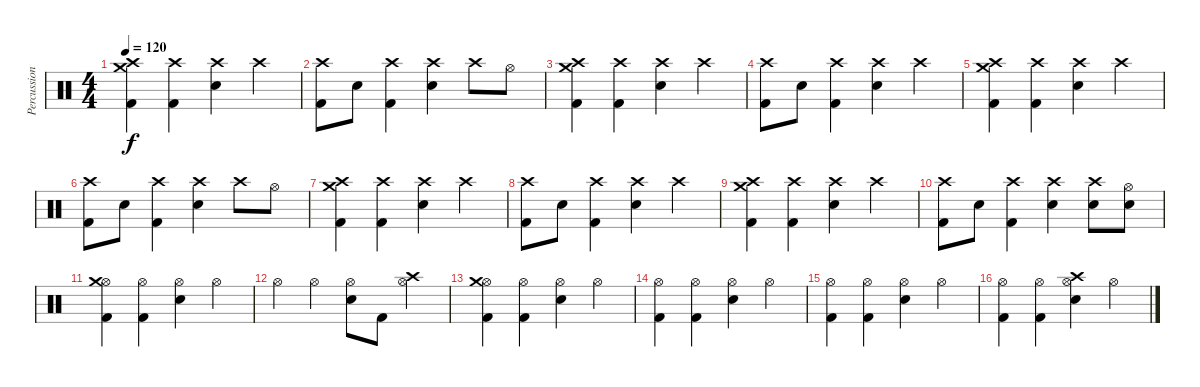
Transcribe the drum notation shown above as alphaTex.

\track ("Percussioni" "Percussion") {instrument percussion}
\staff {score}
\articulation defaults
\ts (4 4)
\tempo 120
\clef neutral
\ks c
("Crash high (hit)" "Kick (hit) 2" "Crash medium (hit)").4{dy f} ("Crash high (hit)" "Kick (hit) 2").4 ("Crash high (hit)" "Snare (hit) 2").4 "Crash high (hit)".4 |
("Crash high (hit)" "Kick (hit) 2").8 "Snare (hit) 2".8 ("Crash high (hit)" "Kick (hit) 2").4 ("Crash high (hit)" "Snare (hit) 2").4 "Crash high (hit)".8 "Hi-Hat (open)".8 |
("Crash high (hit)" "Kick (hit) 2" "Crash medium (hit)").4 ("Crash high (hit)" "Kick (hit) 2").4 ("Crash high (hit)" "Snare (hit) 2").4 "Crash high (hit)".4 |
("Crash high (hit)" "Kick (hit) 2").8 "Snare (hit) 2".8 ("Crash high (hit)" "Kick (hit) 2").4 ("Crash high (hit)" "Snare (hit) 2").4 "Crash high (hit)".4 |
("Crash high (hit)" "Kick (hit) 2" "Crash medium (hit)").4 ("Crash high (hit)" "Kick (hit) 2").4 ("Crash high (hit)" "Snare (hit) 2").4 "Crash high (hit)".4 |
("Crash high (hit)" "Kick (hit) 2").8 "Snare (hit) 2".8 ("Crash high (hit)" "Kick (hit) 2").4 ("Crash high (hit)" "Snare (hit) 2").4 "Crash high (hit)".8 "Hi-Hat (open)".8 |
("Crash high (hit)" "Kick (hit) 2" "Crash medium (hit)").4 ("Crash high (hit)" "Kick (hit) 2").4 ("Crash high (hit)" "Snare (hit) 2").4 "Crash high (hit)".4 |
("Crash high (hit)" "Kick (hit) 2").8 "Snare (hit) 2".8 ("Crash high (hit)" "Kick (hit) 2").4 ("Crash high (hit)" "Snare (hit) 2").4 "Crash high (hit)".4 |
("Crash high (hit)" "Kick (hit) 2" "Crash medium (hit)").4 ("Crash high (hit)" "Kick (hit) 2").4 ("Crash high (hit)" "Snare (hit) 2").4 "Crash high (hit)".4 |
("Crash high (hit)" "Kick (hit) 2").8 "Snare (hit) 2".8 ("Crash high (hit)" "Kick (hit) 2").4 ("Crash high (hit)" "Snare (hit) 2").4 ("Crash high (hit)" "Snare (hit) 2").8 ("Snare (hit) 2" "Hi-Hat (open)").8 |
("Hi-Hat (open)" "Crash medium (hit)" "Kick (hit) 2").4 ("Hi-Hat (open)" "Kick (hit) 2").4 ("Hi-Hat (open)" "Snare (hit) 2").4 "Hi-Hat (open)".4 |
"Hi-Hat (open)".4 "Hi-Hat (open)".4 ("Hi-Hat (open)" "Snare (hit) 2").8 "Kick (hit) 2".8 ("Hi-Hat (open)" "Crash high (hit)").4 |
("Hi-Hat (open)" "Crash medium (hit)" "Kick (hit) 2").4 ("Hi-Hat (open)" "Kick (hit) 2").4 ("Hi-Hat (open)" "Snare (hit) 2").4 "Hi-Hat (open)".4 |
("Hi-Hat (open)" "Kick (hit) 2").4 ("Hi-Hat (open)" "Kick (hit) 2").4 ("Hi-Hat (open)" "Snare (hit) 2").4 "Hi-Hat (open)".4 |
("Hi-Hat (open)" "Kick (hit) 2").4 ("Hi-Hat (open)" "Kick (hit) 2").4 ("Hi-Hat (open)" "Snare (hit) 2").4 "Hi-Hat (open)".4 |
("Hi-Hat (open)" "Kick (hit) 2").4 ("Hi-Hat (open)" "Kick (hit) 2").4 ("Hi-Hat (open)" "Crash high (hit)" "Snare (hit) 2").4 "Hi-Hat (open)".4
